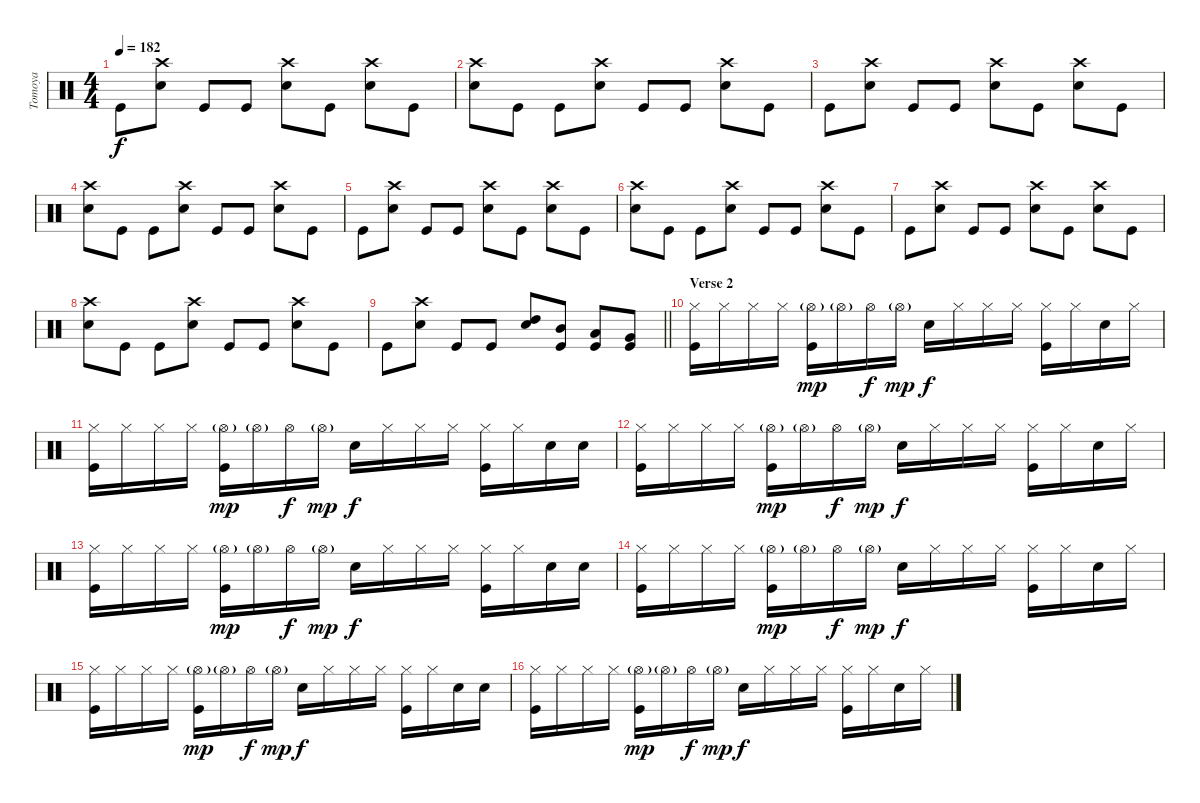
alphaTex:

\track ("Tomoya" "Tomoya") {instrument percussion}
\staff {score}
\articulation defaults
\ts (4 4)
\tempo 182
\clef neutral
\ks c "Kick (hit)".8{dy f}
("Crash high (hit)" "Snare (hit) 2").8 "Kick (hit)".8 "Kick (hit)".8 ("Crash high (hit)" "Snare (hit) 2").8 "Kick (hit)".8 ("Crash high (hit)" "Snare (hit) 2").8 "Kick (hit)".8 |
("Crash high (hit)" "Snare (hit) 2").8 "Kick (hit)".8 "Kick (hit)".8 ("Crash high (hit)" "Snare (hit) 2").8 "Kick (hit)".8 "Kick (hit)".8 ("Crash high (hit)" "Snare (hit) 2").8 "Kick (hit)".8 |
"Kick (hit)".8 ("Crash high (hit)" "Snare (hit) 2").8 "Kick (hit)".8 "Kick (hit)".8 ("Crash high (hit)" "Snare (hit) 2").8 "Kick (hit)".8 ("Crash high (hit)" "Snare (hit) 2").8 "Kick (hit)".8 |
("Crash high (hit)" "Snare (hit) 2").8 "Kick (hit)".8 "Kick (hit)".8 ("Crash high (hit)" "Snare (hit) 2").8 "Kick (hit)".8 "Kick (hit)".8 ("Crash high (hit)" "Snare (hit) 2").8 "Kick (hit)".8 |
"Kick (hit)".8 ("Crash high (hit)" "Snare (hit) 2").8 "Kick (hit)".8 "Kick (hit)".8 ("Crash high (hit)" "Snare (hit) 2").8 "Kick (hit)".8 ("Crash high (hit)" "Snare (hit) 2").8 "Kick (hit)".8 |
("Crash high (hit)" "Snare (hit) 2").8 "Kick (hit)".8 "Kick (hit)".8 ("Crash high (hit)" "Snare (hit) 2").8 "Kick (hit)".8 "Kick (hit)".8 ("Crash high (hit)" "Snare (hit) 2").8 "Kick (hit)".8 |
"Kick (hit)".8 ("Crash high (hit)" "Snare (hit) 2").8 "Kick (hit)".8 "Kick (hit)".8 ("Crash high (hit)" "Snare (hit) 2").8 "Kick (hit)".8 ("Crash high (hit)" "Snare (hit) 2").8 "Kick (hit)".8 |
("Crash high (hit)" "Snare (hit) 2").8 "Kick (hit)".8 "Kick (hit)".8 ("Crash high (hit)" "Snare (hit) 2").8 "Kick (hit)".8 "Kick (hit)".8 ("Crash high (hit)" "Snare (hit) 2").8 "Kick (hit)".8 |
\barLineRight lightlight "Kick (hit)".8
("Crash high (hit)" "Snare (hit) 2").8 "Kick (hit)".8 "Kick (hit)".8 ("High Tom (hit)" "Snare (hit) 2").8 ("Mid Tom (hit)" "Kick (hit)").8 ("Low Tom (hit)" "Kick (hit)").8 ("Very Low Tom (hit)" "Kick (hit)").8 |
\section ("" "Verse 2")
("Hi-Hat (closed)" "Kick (hit)").16 "Hi-Hat (closed)".16 "Hi-Hat (closed)".16 "Hi-Hat (closed)".16 ("Hi-Hat (open)"{g} "Kick (hit)").16{dy mp} "Hi-Hat (open)"{g}.16 "Hi-Hat (open)".16{dy f} "Hi-Hat (open)"{g}.16{dy mp} "Snare (hit) 2".16{dy f} "Hi-Hat (closed)".16 "Hi-Hat (closed)".16 "Hi-Hat (closed)".16 ("Hi-Hat (closed)" "Kick (hit)").16 "Hi-Hat (closed)".16 "Snare (hit) 2".16 "Hi-Hat (closed)".16 |
("Hi-Hat (closed)" "Kick (hit)").16 "Hi-Hat (closed)".16 "Hi-Hat (closed)".16 "Hi-Hat (closed)".16 ("Hi-Hat (open)"{g} "Kick (hit)").16{dy mp} "Hi-Hat (open)"{g}.16 "Hi-Hat (open)".16{dy f} "Hi-Hat (open)"{g}.16{dy mp} "Snare (hit) 2".16{dy f} "Hi-Hat (closed)".16 "Hi-Hat (closed)".16 "Hi-Hat (closed)".16 ("Hi-Hat (closed)" "Kick (hit)").16 "Hi-Hat (closed)".16 "Snare (hit) 2".16 "Snare (hit) 2".16 |
("Hi-Hat (closed)" "Kick (hit)").16 "Hi-Hat (closed)".16 "Hi-Hat (closed)".16 "Hi-Hat (closed)".16 ("Hi-Hat (open)"{g} "Kick (hit)").16{dy mp} "Hi-Hat (open)"{g}.16 "Hi-Hat (open)".16{dy f} "Hi-Hat (open)"{g}.16{dy mp} "Snare (hit) 2".16{dy f} "Hi-Hat (closed)".16 "Hi-Hat (closed)".16 "Hi-Hat (closed)".16 ("Hi-Hat (closed)" "Kick (hit)").16 "Hi-Hat (closed)".16 "Snare (hit) 2".16 "Hi-Hat (closed)".16 |
("Hi-Hat (closed)" "Kick (hit)").16 "Hi-Hat (closed)".16 "Hi-Hat (closed)".16 "Hi-Hat (closed)".16 ("Hi-Hat (open)"{g} "Kick (hit)").16{dy mp} "Hi-Hat (open)"{g}.16 "Hi-Hat (open)".16{dy f} "Hi-Hat (open)"{g}.16{dy mp} "Snare (hit) 2".16{dy f} "Hi-Hat (closed)".16 "Hi-Hat (closed)".16 "Hi-Hat (closed)".16 ("Hi-Hat (closed)" "Kick (hit)").16 "Hi-Hat (closed)".16 "Snare (hit) 2".16 "Snare (hit) 2".16 |
("Hi-Hat (closed)" "Kick (hit)").16 "Hi-Hat (closed)".16 "Hi-Hat (closed)".16 "Hi-Hat (closed)".16 ("Hi-Hat (open)"{g} "Kick (hit)").16{dy mp} "Hi-Hat (open)"{g}.16 "Hi-Hat (open)".16{dy f} "Hi-Hat (open)"{g}.16{dy mp} "Snare (hit) 2".16{dy f} "Hi-Hat (closed)".16 "Hi-Hat (closed)".16 "Hi-Hat (closed)".16 ("Hi-Hat (closed)" "Kick (hit)").16 "Hi-Hat (closed)".16 "Snare (hit) 2".16 "Hi-Hat (closed)".16 |
("Hi-Hat (closed)" "Kick (hit)").16 "Hi-Hat (closed)".16 "Hi-Hat (closed)".16 "Hi-Hat (closed)".16 ("Hi-Hat (open)"{g} "Kick (hit)").16{dy mp} "Hi-Hat (open)"{g}.16 "Hi-Hat (open)".16{dy f} "Hi-Hat (open)"{g}.16{dy mp} "Snare (hit) 2".16{dy f} "Hi-Hat (closed)".16 "Hi-Hat (closed)".16 "Hi-Hat (closed)".16 ("Hi-Hat (closed)" "Kick (hit)").16 "Hi-Hat (closed)".16 "Snare (hit) 2".16 "Snare (hit) 2".16 |
("Hi-Hat (closed)" "Kick (hit)").16 "Hi-Hat (closed)".16 "Hi-Hat (closed)".16 "Hi-Hat (closed)".16 ("Hi-Hat (open)"{g} "Kick (hit)").16{dy mp} "Hi-Hat (open)"{g}.16 "Hi-Hat (open)".16{dy f} "Hi-Hat (open)"{g}.16{dy mp} "Snare (hit) 2".16{dy f} "Hi-Hat (closed)".16 "Hi-Hat (closed)".16 "Hi-Hat (closed)".16 ("Hi-Hat (closed)" "Kick (hit)").16 "Hi-Hat (closed)".16 "Snare (hit) 2".16 "Hi-Hat (closed)".16
